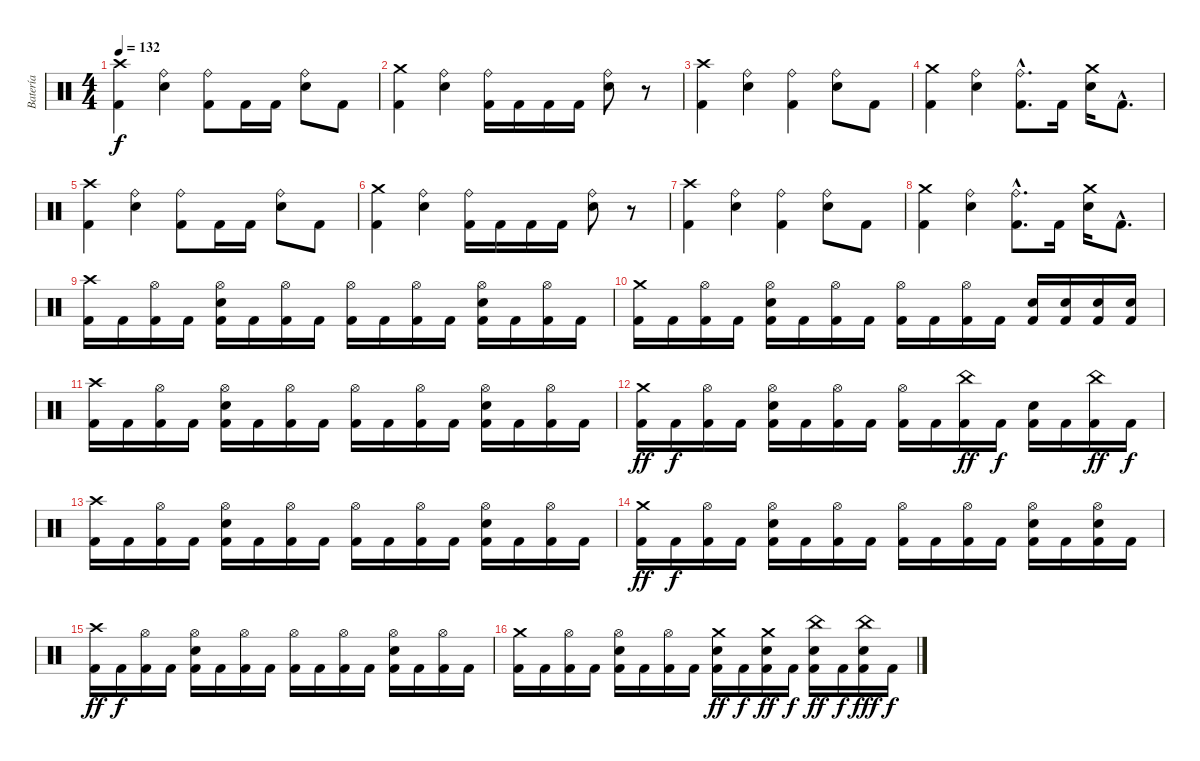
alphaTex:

\track ("Batería" "Batería") {instrument percussion}
\staff {score}
\articulation defaults
\ts (4 4)
\tempo 132
\clef neutral
\ks c
("Crash high (hit)" "Kick (hit) 2").4{dy f} ("Ride (bell)" "Snare (hit) 2").4 ("Ride (bell)" "Kick (hit) 2").8 "Kick (hit) 2".16 "Kick (hit) 2".16 ("Ride (bell)" "Snare (hit) 2").8 "Kick (hit) 2".8 |
("Crash medium (hit)" "Kick (hit) 2").4 ("Ride (bell)" "Snare (hit) 2").4 ("Ride (bell)" "Kick (hit) 2").16 "Kick (hit) 2".16 "Kick (hit) 2".16 "Kick (hit) 2".16 ("Ride (bell)" "Snare (hit) 2").8 r.8 |
("Crash high (hit)" "Kick (hit) 2").4 ("Ride (bell)" "Snare (hit) 2").4 ("Ride (bell)" "Kick (hit) 2").4 ("Ride (bell)" "Snare (hit) 2").8 "Kick (hit) 2".8 |
("Crash medium (hit)" "Kick (hit) 2").4 ("Ride (bell)" "Snare (hit) 2").4 ("Ride (bell)"{hac} "Kick (hit) 2"{hac}).8{d} "Kick (hit) 2".16 ("Crash medium (hit)" "Snare (hit) 2").16 "Kick (hit) 2"{hac}.8{d} |
("Crash high (hit)" "Kick (hit) 2").4 ("Ride (bell)" "Snare (hit) 2").4 ("Ride (bell)" "Kick (hit) 2").8 "Kick (hit) 2".16 "Kick (hit) 2".16 ("Ride (bell)" "Snare (hit) 2").8 "Kick (hit) 2".8 |
("Crash medium (hit)" "Kick (hit) 2").4 ("Ride (bell)" "Snare (hit) 2").4 ("Ride (bell)" "Kick (hit) 2").16 "Kick (hit) 2".16 "Kick (hit) 2".16 "Kick (hit) 2".16 ("Ride (bell)" "Snare (hit) 2").8 r.8 |
("Crash high (hit)" "Kick (hit) 2").4 ("Ride (bell)" "Snare (hit) 2").4 ("Ride (bell)" "Kick (hit) 2").4 ("Ride (bell)" "Snare (hit) 2").8 "Kick (hit) 2".8 |
("Crash medium (hit)" "Kick (hit) 2").4 ("Ride (bell)" "Snare (hit) 2").4 ("Ride (bell)"{hac} "Kick (hit) 2"{hac}).8{d} "Kick (hit) 2".16 ("Crash medium (hit)" "Snare (hit) 2").16 "Kick (hit) 2"{hac}.8{d} |
("Crash high (hit)" "Kick (hit) 2").16 "Kick (hit) 2".16 ("Hi-Hat (open)" "Kick (hit) 2").16 "Kick (hit) 2".16 ("Hi-Hat (open)" "Kick (hit) 2" "Snare (hit) 2").16 "Kick (hit) 2".16 ("Hi-Hat (open)" "Kick (hit) 2").16 "Kick (hit) 2".16 ("Hi-Hat (open)" "Kick (hit) 2").16 "Kick (hit) 2".16 ("Hi-Hat (open)" "Kick (hit) 2").16 "Kick (hit) 2".16 ("Hi-Hat (open)" "Kick (hit) 2" "Snare (hit) 2").16 "Kick (hit) 2".16 ("Hi-Hat (open)" "Kick (hit) 2").16 "Kick (hit) 2".16 |
("Crash medium (hit)" "Kick (hit) 2").16 "Kick (hit) 2".16 ("Hi-Hat (open)" "Kick (hit) 2").16 "Kick (hit) 2".16 ("Hi-Hat (open)" "Kick (hit) 2" "Snare (hit) 2").16 "Kick (hit) 2".16 ("Hi-Hat (open)" "Kick (hit) 2").16 "Kick (hit) 2".16 ("Hi-Hat (open)" "Kick (hit) 2").16 "Kick (hit) 2".16 ("Hi-Hat (open)" "Kick (hit) 2").16 "Kick (hit) 2".16 ("Kick (hit) 2" "Snare (hit) 2").16 ("Kick (hit) 2" "Snare (hit) 2").16 ("Kick (hit) 2" "Snare (hit) 2").16 ("Kick (hit) 2" "Snare (hit) 2").16 |
("Crash high (hit)" "Kick (hit) 2").16 "Kick (hit) 2".16 ("Hi-Hat (open)" "Kick (hit) 2").16 "Kick (hit) 2".16 ("Hi-Hat (open)" "Kick (hit) 2" "Snare (hit) 2").16 "Kick (hit) 2".16 ("Hi-Hat (open)" "Kick (hit) 2").16 "Kick (hit) 2".16 ("Hi-Hat (open)" "Kick (hit) 2").16 "Kick (hit) 2".16 ("Hi-Hat (open)" "Kick (hit) 2").16 "Kick (hit) 2".16 ("Hi-Hat (open)" "Kick (hit) 2" "Snare (hit) 2").16 "Kick (hit) 2".16 ("Hi-Hat (open)" "Kick (hit) 2").16 "Kick (hit) 2".16 |
("Crash medium (hit)" "Kick (hit) 2").16{dy ff} "Kick (hit) 2".16{dy f} ("Hi-Hat (open)" "Kick (hit) 2").16 "Kick (hit) 2".16 ("Hi-Hat (open)" "Kick (hit) 2" "Snare (hit) 2").16 "Kick (hit) 2".16 ("Hi-Hat (open)" "Kick (hit) 2").16 "Kick (hit) 2".16 ("Hi-Hat (open)" "Kick (hit) 2").16 "Kick (hit) 2".16 ("China (hit)" "Kick (hit) 2").16{dy ff} "Kick (hit) 2".16{dy f} ("Kick (hit) 2" "Snare (hit) 2").16 "Kick (hit) 2".16 ("China (hit)" "Kick (hit) 2").16{dy ff} "Kick (hit) 2".16{dy f} |
("Crash high (hit)" "Kick (hit) 2").16 "Kick (hit) 2".16 ("Hi-Hat (open)" "Kick (hit) 2").16 "Kick (hit) 2".16 ("Hi-Hat (open)" "Kick (hit) 2" "Snare (hit) 2").16 "Kick (hit) 2".16 ("Hi-Hat (open)" "Kick (hit) 2").16 "Kick (hit) 2".16 ("Hi-Hat (open)" "Kick (hit) 2").16 "Kick (hit) 2".16 ("Hi-Hat (open)" "Kick (hit) 2").16 "Kick (hit) 2".16 ("Hi-Hat (open)" "Kick (hit) 2" "Snare (hit) 2").16 "Kick (hit) 2".16 ("Hi-Hat (open)" "Kick (hit) 2").16 "Kick (hit) 2".16 |
("Crash medium (hit)" "Kick (hit) 2").16{dy ff} "Kick (hit) 2".16{dy f} ("Hi-Hat (open)" "Kick (hit) 2").16 "Kick (hit) 2".16 ("Hi-Hat (open)" "Kick (hit) 2" "Snare (hit) 2").16 "Kick (hit) 2".16 ("Hi-Hat (open)" "Kick (hit) 2").16 "Kick (hit) 2".16 ("Hi-Hat (open)" "Kick (hit) 2").16 "Kick (hit) 2".16 ("Hi-Hat (open)" "Kick (hit) 2").16 "Kick (hit) 2".16 ("Hi-Hat (open)" "Kick (hit) 2" "Snare (hit) 2").16 "Kick (hit) 2".16 ("Hi-Hat (open)" "Kick (hit) 2" "Snare (hit) 2").16 "Kick (hit) 2".16 |
("Crash high (hit)" "Kick (hit) 2").16{dy ff} "Kick (hit) 2".16{dy f} ("Hi-Hat (open)" "Kick (hit) 2").16 "Kick (hit) 2".16 ("Hi-Hat (open)" "Kick (hit) 2" "Snare (hit) 2").16 "Kick (hit) 2".16 ("Hi-Hat (open)" "Kick (hit) 2").16 "Kick (hit) 2".16 ("Hi-Hat (open)" "Kick (hit) 2").16 "Kick (hit) 2".16 ("Hi-Hat (open)" "Kick (hit) 2").16 "Kick (hit) 2".16 ("Hi-Hat (open)" "Kick (hit) 2" "Snare (hit) 2").16 "Kick (hit) 2".16 ("Hi-Hat (open)" "Kick (hit) 2").16 "Kick (hit) 2".16 |
("Crash medium (hit)" "Kick (hit) 2").16 "Kick (hit) 2".16 ("Hi-Hat (open)" "Kick (hit) 2").16 "Kick (hit) 2".16 ("Hi-Hat (open)" "Kick (hit) 2" "Snare (hit) 2").16 "Kick (hit) 2".16 ("Hi-Hat (open)" "Kick (hit) 2").16 "Kick (hit) 2".16 ("Crash medium (hit)" "Kick (hit) 2" "Snare (hit) 2").16{dy ff} "Kick (hit) 2".16{dy f} ("Crash medium (hit)" "Kick (hit) 2" "Snare (hit) 2").16{dy ff} "Kick (hit) 2".16{dy f} ("China (hit)" "Kick (hit) 2" "Snare (hit) 2").16{dy ff} "Kick (hit) 2".16{dy f} ("China (hit)" "Kick (hit) 2" "Snare (hit) 2").16{dy fff} "Kick (hit) 2".16{dy f}
